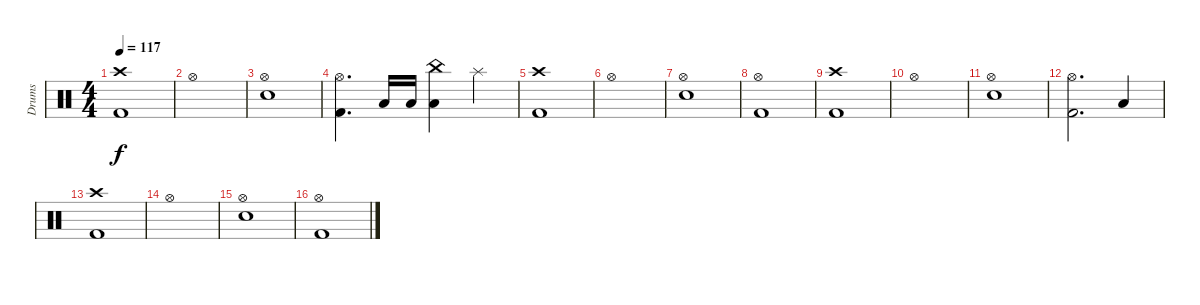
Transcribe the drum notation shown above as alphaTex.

\track ("Drums" "Drums") {instrument percussion}
\staff {score}
\articulation defaults
\ts (4 4)
\tempo 117
\clef neutral
\ks c
("Crash high (hit)" "Kick (hit) 2").1{dy f} |
"Hi-Hat (open)".1 |
("Hi-Hat (open)" "Snare (hit) 2").1 |
("Hi-Hat (open)" "Kick (hit) 2").4{d} "Low Tom (hit)".16 "Low Tom (hit)".16 ("China (hit)" "Low Tom (hit)").4 "Splash (hit)".4 |
("Crash high (hit)" "Kick (hit) 2").1 |
"Hi-Hat (open)".1 |
("Hi-Hat (open)" "Snare (hit) 2").1 |
("Hi-Hat (open)" "Kick (hit) 2").1 |
("Crash high (hit)" "Kick (hit) 2").1 |
"Hi-Hat (open)".1 |
("Hi-Hat (open)" "Snare (hit) 2").1 |
("Hi-Hat (open)" "Kick (hit) 2").2{d} "Low Tom (hit)".4 |
("Crash high (hit)" "Kick (hit) 2").1 |
"Hi-Hat (open)".1 |
("Hi-Hat (open)" "Snare (hit) 2").1 |
("Hi-Hat (open)" "Kick (hit) 2").1
